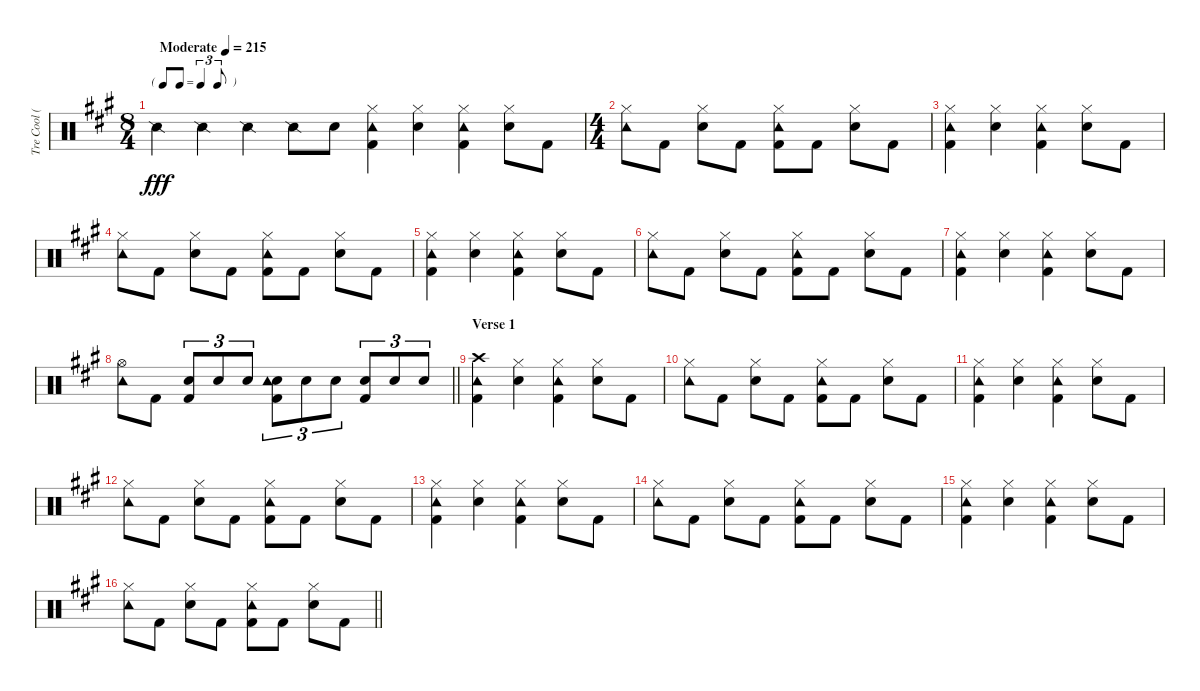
\track ("Tre Cool (Drums)" "Tre Cool (") {instrument percussion}
\staff {score}
\articulation defaults
\ts (8 4)
\tf triplet8th
\tempo (215 "Moderate")
\clef neutral
\ks a "Snare (side stick) 2".4{dy fff} "Snare (side stick) 2".4 "Snare (side stick) 2".4 "Snare (side stick) 2".8 "Electric Snare (hit)".8
("Hi-Hat (closed)" "Kick (hit) 2" "Tambourine (hit)").4 ("Hi-Hat (closed)" "Electric Snare (hit)").4 ("Hi-Hat (closed)" "Kick (hit) 2" "Tambourine (hit)").4 ("Hi-Hat (closed)" "Electric Snare (hit)").8 "Kick (hit) 2".8 |
\ts (4 4)
("Hi-Hat (closed)" "Tambourine (hit)").8 "Kick (hit) 2".8 ("Hi-Hat (closed)" "Electric Snare (hit)").8 "Kick (hit) 2".8 ("Hi-Hat (closed)" "Kick (hit) 2" "Tambourine (hit)").8 "Kick (hit) 2".8 ("Hi-Hat (closed)" "Electric Snare (hit)").8 "Kick (hit) 2".8 |
("Hi-Hat (closed)" "Kick (hit) 2" "Tambourine (hit)").4 ("Hi-Hat (closed)" "Electric Snare (hit)").4 ("Hi-Hat (closed)" "Kick (hit) 2" "Tambourine (hit)").4 ("Hi-Hat (closed)" "Electric Snare (hit)").8 "Kick (hit) 2".8 |
("Hi-Hat (closed)" "Tambourine (hit)").8 "Kick (hit) 2".8 ("Hi-Hat (closed)" "Electric Snare (hit)").8 "Kick (hit) 2".8 ("Hi-Hat (closed)" "Kick (hit) 2" "Tambourine (hit)").8 "Kick (hit) 2".8 ("Hi-Hat (closed)" "Electric Snare (hit)").8 "Kick (hit) 2".8 |
("Hi-Hat (closed)" "Kick (hit) 2" "Tambourine (hit)").4 ("Hi-Hat (closed)" "Electric Snare (hit)").4 ("Hi-Hat (closed)" "Kick (hit) 2" "Tambourine (hit)").4 ("Hi-Hat (closed)" "Electric Snare (hit)").8 "Kick (hit) 2".8 |
("Hi-Hat (closed)" "Tambourine (hit)").8 "Kick (hit) 2".8 ("Hi-Hat (closed)" "Electric Snare (hit)").8 "Kick (hit) 2".8 ("Hi-Hat (closed)" "Kick (hit) 2" "Tambourine (hit)").8 "Kick (hit) 2".8 ("Hi-Hat (closed)" "Electric Snare (hit)").8 "Kick (hit) 2".8 |
("Hi-Hat (closed)" "Kick (hit) 2" "Tambourine (hit)").4 ("Hi-Hat (closed)" "Electric Snare (hit)").4 ("Hi-Hat (closed)" "Kick (hit) 2" "Tambourine (hit)").4 ("Hi-Hat (closed)" "Electric Snare (hit)").8 "Kick (hit) 2".8 |
\barLineRight lightlight
("Hi-Hat (open)" "Tambourine (hit)").8 "Kick (hit) 2".8 ("Electric Snare (hit)" "Kick (hit) 2").8{tu (3 2)} "Electric Snare (hit)".8{tu (3 2)} "Electric Snare (hit)".8{tu (3 2)} ("Electric Snare (hit)" "Kick (hit) 2" "Tambourine (hit)").8{tu (3 2)} "Electric Snare (hit)".8{tu (3 2)} "Electric Snare (hit)".8{tu (3 2)} ("Electric Snare (hit)" "Kick (hit) 2").8{tu (3 2)} "Electric Snare (hit)".8{tu (3 2)} "Electric Snare (hit)".8{tu (3 2)} |
\section ("" "Verse 1")
("Crash high (hit)" "Kick (hit) 2" "Tambourine (hit)").4 ("Hi-Hat (closed)" "Electric Snare (hit)").4 ("Hi-Hat (closed)" "Kick (hit) 2" "Tambourine (hit)").4 ("Hi-Hat (closed)" "Electric Snare (hit)").8 "Kick (hit) 2".8 |
("Hi-Hat (closed)" "Tambourine (hit)").8 "Kick (hit) 2".8 ("Hi-Hat (closed)" "Electric Snare (hit)").8 "Kick (hit) 2".8 ("Hi-Hat (closed)" "Kick (hit) 2" "Tambourine (hit)").8 "Kick (hit) 2".8 ("Hi-Hat (closed)" "Electric Snare (hit)").8 "Kick (hit) 2".8 |
("Hi-Hat (closed)" "Kick (hit) 2" "Tambourine (hit)").4 ("Hi-Hat (closed)" "Electric Snare (hit)").4 ("Hi-Hat (closed)" "Kick (hit) 2" "Tambourine (hit)").4 ("Hi-Hat (closed)" "Electric Snare (hit)").8 "Kick (hit) 2".8 |
("Hi-Hat (closed)" "Tambourine (hit)").8 "Kick (hit) 2".8 ("Hi-Hat (closed)" "Electric Snare (hit)").8 "Kick (hit) 2".8 ("Hi-Hat (closed)" "Kick (hit) 2" "Tambourine (hit)").8 "Kick (hit) 2".8 ("Hi-Hat (closed)" "Electric Snare (hit)").8 "Kick (hit) 2".8 |
("Hi-Hat (closed)" "Kick (hit) 2" "Tambourine (hit)").4 ("Hi-Hat (closed)" "Electric Snare (hit)").4 ("Hi-Hat (closed)" "Kick (hit) 2" "Tambourine (hit)").4 ("Hi-Hat (closed)" "Electric Snare (hit)").8 "Kick (hit) 2".8 |
("Hi-Hat (closed)" "Tambourine (hit)").8 "Kick (hit) 2".8 ("Hi-Hat (closed)" "Electric Snare (hit)").8 "Kick (hit) 2".8 ("Hi-Hat (closed)" "Kick (hit) 2" "Tambourine (hit)").8 "Kick (hit) 2".8 ("Hi-Hat (closed)" "Electric Snare (hit)").8 "Kick (hit) 2".8 |
("Hi-Hat (closed)" "Kick (hit) 2" "Tambourine (hit)").4 ("Hi-Hat (closed)" "Electric Snare (hit)").4 ("Hi-Hat (closed)" "Kick (hit) 2" "Tambourine (hit)").4 ("Hi-Hat (closed)" "Electric Snare (hit)").8 "Kick (hit) 2".8 |
\barLineRight lightlight
("Hi-Hat (closed)" "Tambourine (hit)").8 "Kick (hit) 2".8 ("Hi-Hat (closed)" "Electric Snare (hit)").8 "Kick (hit) 2".8 ("Hi-Hat (closed)" "Kick (hit) 2" "Tambourine (hit)").8 "Kick (hit) 2".8 ("Hi-Hat (closed)" "Electric Snare (hit)").8 "Kick (hit) 2".8
